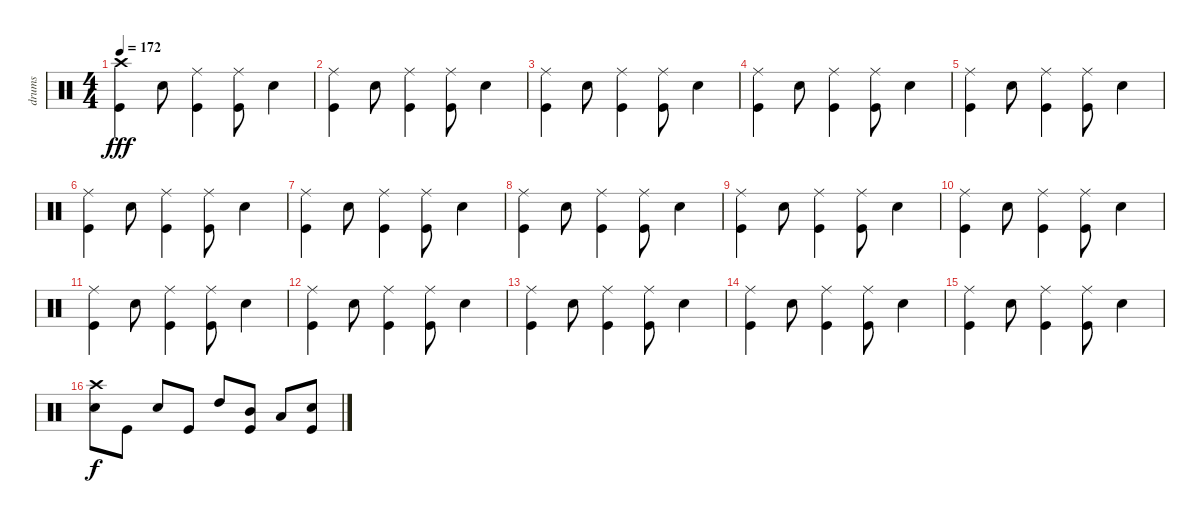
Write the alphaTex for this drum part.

\track ("drums" "drums") {instrument percussion}
\staff {score}
\articulation defaults
\ts (4 4)
\tempo 172
\clef neutral
\ks c
("Crash high (hit)" "Kick (hit)").4{dy fff} "Electric Snare (hit)".8 ("Ride (middle)" "Kick (hit)").4 ("Ride (middle)" "Kick (hit)").8 "Electric Snare (hit)".4 |
("Ride (middle)" "Kick (hit)").4 "Electric Snare (hit)".8 ("Ride (middle)" "Kick (hit)").4 ("Ride (middle)" "Kick (hit)").8 "Electric Snare (hit)".4 |
("Ride (middle)" "Kick (hit)").4 "Electric Snare (hit)".8 ("Ride (middle)" "Kick (hit)").4 ("Ride (middle)" "Kick (hit)").8 "Electric Snare (hit)".4 |
("Ride (middle)" "Kick (hit)").4 "Electric Snare (hit)".8 ("Ride (middle)" "Kick (hit)").4 ("Ride (middle)" "Kick (hit)").8 "Electric Snare (hit)".4 |
("Ride (middle)" "Kick (hit)").4 "Electric Snare (hit)".8 ("Ride (middle)" "Kick (hit)").4 ("Ride (middle)" "Kick (hit)").8 "Electric Snare (hit)".4 |
("Ride (middle)" "Kick (hit)").4 "Electric Snare (hit)".8 ("Ride (middle)" "Kick (hit)").4 ("Ride (middle)" "Kick (hit)").8 "Electric Snare (hit)".4 |
("Ride (middle)" "Kick (hit)").4 "Electric Snare (hit)".8 ("Ride (middle)" "Kick (hit)").4 ("Ride (middle)" "Kick (hit)").8 "Electric Snare (hit)".4 |
("Ride (middle)" "Kick (hit)").4 "Electric Snare (hit)".8 ("Ride (middle)" "Kick (hit)").4 ("Ride (middle)" "Kick (hit)").8 "Electric Snare (hit)".4 |
("Ride (middle)" "Kick (hit)").4 "Electric Snare (hit)".8 ("Ride (middle)" "Kick (hit)").4 ("Ride (middle)" "Kick (hit)").8 "Electric Snare (hit)".4 |
("Ride (middle)" "Kick (hit)").4 "Electric Snare (hit)".8 ("Ride (middle)" "Kick (hit)").4 ("Ride (middle)" "Kick (hit)").8 "Electric Snare (hit)".4 |
("Ride (middle)" "Kick (hit)").4 "Electric Snare (hit)".8 ("Ride (middle)" "Kick (hit)").4 ("Ride (middle)" "Kick (hit)").8 "Electric Snare (hit)".4 |
("Ride (middle)" "Kick (hit)").4 "Electric Snare (hit)".8 ("Ride (middle)" "Kick (hit)").4 ("Ride (middle)" "Kick (hit)").8 "Electric Snare (hit)".4 |
("Ride (middle)" "Kick (hit)").4 "Electric Snare (hit)".8 ("Ride (middle)" "Kick (hit)").4 ("Ride (middle)" "Kick (hit)").8 "Electric Snare (hit)".4 |
("Ride (middle)" "Kick (hit)").4 "Electric Snare (hit)".8 ("Ride (middle)" "Kick (hit)").4 ("Ride (middle)" "Kick (hit)").8 "Electric Snare (hit)".4 |
("Ride (middle)" "Kick (hit)").4 "Electric Snare (hit)".8 ("Ride (middle)" "Kick (hit)").4 ("Ride (middle)" "Kick (hit)").8 "Electric Snare (hit)".4 |
("Crash high (hit)" "Electric Snare (hit)").8{dy f} "Kick (hit)".8 "Electric Snare (hit)".8 "Kick (hit)".8 "High Tom (hit)".8 ("Mid Tom (hit)" "Kick (hit)").8 "Low Tom (hit)".8 ("Electric Snare (hit)" "Kick (hit)").8
